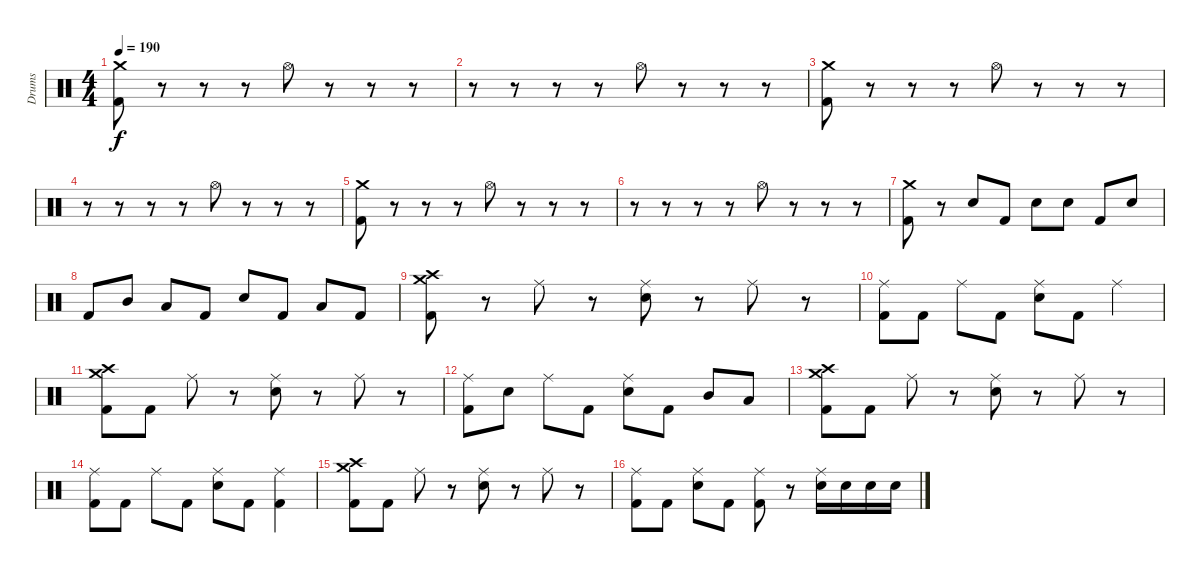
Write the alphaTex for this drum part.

\track ("Drums" "Drums") {instrument percussion}
\staff {score}
\articulation defaults
\ts (4 4)
\tempo 190
\clef neutral
\ks c
("Crash medium (hit)" "Kick (hit) 2").8{dy f} r.8 r.8 r.8 "Hi-Hat (open)".8 r.8 r.8 r.8 |
r.8 r.8 r.8 r.8 "Hi-Hat (open)".8 r.8 r.8 r.8 |
("Crash medium (hit)" "Kick (hit) 2").8 r.8 r.8 r.8 "Hi-Hat (open)".8 r.8 r.8 r.8 |
r.8 r.8 r.8 r.8 "Hi-Hat (open)".8 r.8 r.8 r.8 |
("Crash medium (hit)" "Kick (hit) 2").8 r.8 r.8 r.8 "Hi-Hat (open)".8 r.8 r.8 r.8 |
r.8 r.8 r.8 r.8 "Hi-Hat (open)".8 r.8 r.8 r.8 |
("Crash medium (hit)" "Kick (hit) 2").8 r.8 "Electric Snare (hit)".8 "Kick (hit) 2".8 "Electric Snare (hit)".8 "Electric Snare (hit)".8 "Kick (hit) 2".8 "Electric Snare (hit)".8 |
"Kick (hit) 2".8 "Mid Tom (hit)".8 "Low Tom (hit)".8 "Kick (hit) 2".8 "Electric Snare (hit)".8 "Kick (hit) 2".8 "Low Tom (hit)".8 "Kick (hit) 2".8 |
("Crash medium (hit)" "Crash high (hit)" "Kick (hit) 2").8 r.8 "Ride (middle)".8 r.8 ("Ride (middle)" "Electric Snare (hit)").8 r.8 "Ride (middle)".8 r.8 |
("Ride (middle)" "Kick (hit) 2").8 "Kick (hit) 2".8 "Ride (middle)".8 "Kick (hit) 2".8 ("Ride (middle)" "Electric Snare (hit)").8 "Kick (hit) 2".8 "Ride (middle)".4 |
("Crash medium (hit)" "Crash high (hit)" "Kick (hit) 2").8 "Kick (hit) 2".8 "Ride (middle)".8 r.8 ("Ride (middle)" "Electric Snare (hit)").8 r.8 "Ride (middle)".8 r.8 |
("Ride (middle)" "Kick (hit) 2").8 "Electric Snare (hit)".8 "Ride (middle)".8 "Kick (hit) 2".8 ("Ride (middle)" "Electric Snare (hit)").8 "Kick (hit) 2".8 "Mid Tom (hit)".8 "Low Tom (hit)".8 |
("Crash medium (hit)" "Crash high (hit)" "Kick (hit) 2").8 "Kick (hit) 2".8 "Ride (middle)".8 r.8 ("Ride (middle)" "Electric Snare (hit)").8 r.8 "Ride (middle)".8 r.8 |
("Ride (middle)" "Kick (hit) 2").8 "Kick (hit) 2".8 "Ride (middle)".8 "Kick (hit) 2".8 ("Ride (middle)" "Electric Snare (hit)").8 "Kick (hit) 2".8 ("Ride (middle)" "Kick (hit) 2").4 |
("Crash medium (hit)" "Crash high (hit)" "Kick (hit) 2").8 "Kick (hit) 2".8 "Ride (middle)".8 r.8 ("Ride (middle)" "Electric Snare (hit)").8 r.8 "Ride (middle)".8 r.8 |
("Ride (middle)" "Kick (hit) 2").8 "Kick (hit) 2".8 ("Ride (middle)" "Electric Snare (hit)").8 "Kick (hit) 2".8 ("Ride (middle)" "Kick (hit) 2").8 r.8 ("Ride (middle)" "Electric Snare (hit)").16 "Electric Snare (hit)".16 "Electric Snare (hit)".16 "Electric Snare (hit)".16
